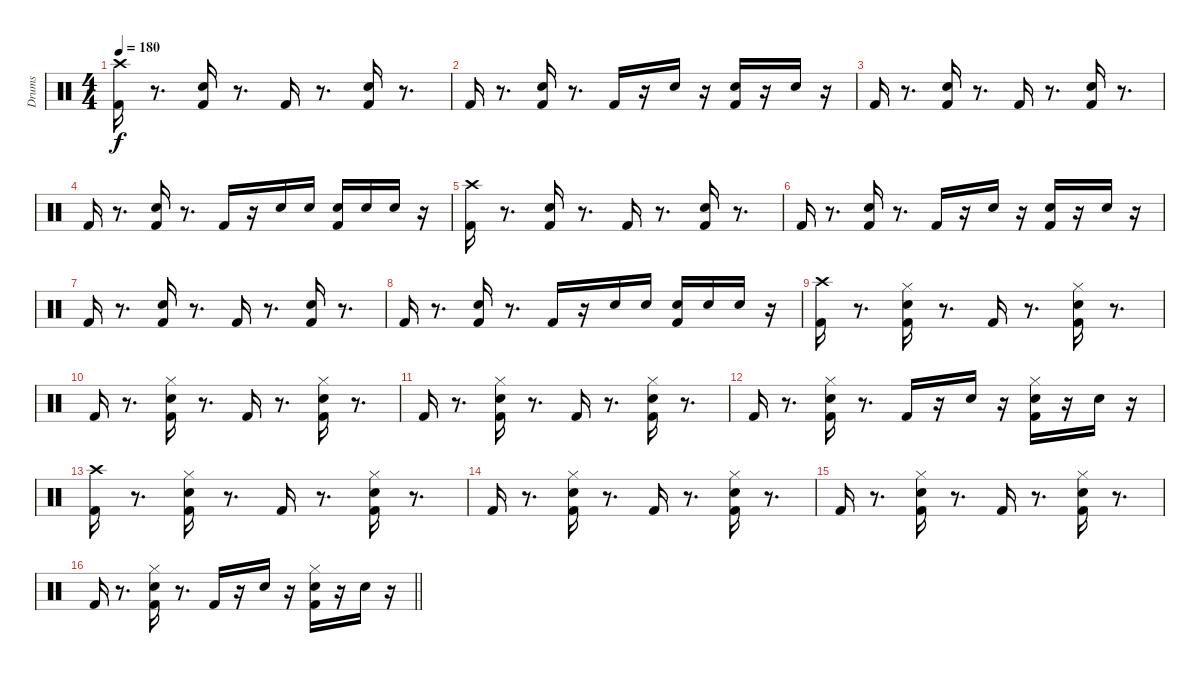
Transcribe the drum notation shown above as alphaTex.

\track ("Drums" "Drums") {instrument percussion}
\staff {score}
\articulation defaults
\ts (4 4)
\tempo 180
\clef neutral
\ks c
("Kick (hit) 2" "Crash high (hit)").16{dy f} r.8{d} ("Kick (hit) 2" "Snare (hit) 2").16 r.8{d} "Kick (hit) 2".16 r.8{d} ("Kick (hit) 2" "Snare (hit) 2").16 r.8{d} |
"Kick (hit) 2".16 r.8{d} ("Kick (hit) 2" "Snare (hit) 2").16 r.8{d} "Kick (hit) 2".16 r.16 "Snare (hit) 2".16 r.16 ("Kick (hit) 2" "Snare (hit) 2").16 r.16 "Snare (hit) 2".16 r.16 |
"Kick (hit) 2".16 r.8{d} ("Kick (hit) 2" "Snare (hit) 2").16 r.8{d} "Kick (hit) 2".16 r.8{d} ("Kick (hit) 2" "Snare (hit) 2").16 r.8{d} |
"Kick (hit) 2".16 r.8{d} ("Kick (hit) 2" "Snare (hit) 2").16 r.8{d} "Kick (hit) 2".16 r.16 "Snare (hit) 2".16 "Snare (hit) 2".16 ("Kick (hit) 2" "Snare (hit) 2").16 "Snare (hit) 2".16 "Snare (hit) 2".16 r.16 |
("Kick (hit) 2" "Crash high (hit)").16 r.8{d} ("Kick (hit) 2" "Snare (hit) 2").16 r.8{d} "Kick (hit) 2".16 r.8{d} ("Kick (hit) 2" "Snare (hit) 2").16 r.8{d} |
"Kick (hit) 2".16 r.8{d} ("Kick (hit) 2" "Snare (hit) 2").16 r.8{d} "Kick (hit) 2".16 r.16 "Snare (hit) 2".16 r.16 ("Kick (hit) 2" "Snare (hit) 2").16 r.16 "Snare (hit) 2".16 r.16 |
"Kick (hit) 2".16 r.8{d} ("Kick (hit) 2" "Snare (hit) 2").16 r.8{d} "Kick (hit) 2".16 r.8{d} ("Kick (hit) 2" "Snare (hit) 2").16 r.8{d} |
"Kick (hit) 2".16 r.8{d} ("Kick (hit) 2" "Snare (hit) 2").16 r.8{d} "Kick (hit) 2".16 r.16 "Snare (hit) 2".16 "Snare (hit) 2".16 ("Kick (hit) 2" "Snare (hit) 2").16 "Snare (hit) 2".16 "Snare (hit) 2".16 r.16 |
("Kick (hit) 2" "Crash high (hit)").16 r.8{d} ("Kick (hit) 2" "Snare (hit) 2" "Hi-Hat (closed)").16 r.8{d} "Kick (hit) 2".16 r.8{d} ("Kick (hit) 2" "Snare (hit) 2" "Hi-Hat (closed)").16 r.8{d} |
"Kick (hit) 2".16 r.8{d} ("Kick (hit) 2" "Snare (hit) 2" "Hi-Hat (closed)").16 r.8{d} "Kick (hit) 2".16 r.8{d} ("Kick (hit) 2" "Snare (hit) 2" "Hi-Hat (closed)").16 r.8{d} |
"Kick (hit) 2".16 r.8{d} ("Kick (hit) 2" "Snare (hit) 2" "Hi-Hat (closed)").16 r.8{d} "Kick (hit) 2".16 r.8{d} ("Kick (hit) 2" "Snare (hit) 2" "Hi-Hat (closed)").16 r.8{d} |
"Kick (hit) 2".16 r.8{d} ("Kick (hit) 2" "Snare (hit) 2" "Hi-Hat (closed)").16 r.8{d} "Kick (hit) 2".16 r.16 "Snare (hit) 2".16 r.16 ("Kick (hit) 2" "Snare (hit) 2" "Hi-Hat (closed)").16 r.16 "Snare (hit) 2".16 r.16 |
("Kick (hit) 2" "Crash high (hit)").16 r.8{d} ("Kick (hit) 2" "Snare (hit) 2" "Hi-Hat (closed)").16 r.8{d} "Kick (hit) 2".16 r.8{d} ("Kick (hit) 2" "Snare (hit) 2" "Hi-Hat (closed)").16 r.8{d} |
"Kick (hit) 2".16 r.8{d} ("Kick (hit) 2" "Snare (hit) 2" "Hi-Hat (closed)").16 r.8{d} "Kick (hit) 2".16 r.8{d} ("Kick (hit) 2" "Snare (hit) 2" "Hi-Hat (closed)").16 r.8{d} |
"Kick (hit) 2".16 r.8{d} ("Kick (hit) 2" "Snare (hit) 2" "Hi-Hat (closed)").16 r.8{d} "Kick (hit) 2".16 r.8{d} ("Kick (hit) 2" "Snare (hit) 2" "Hi-Hat (closed)").16 r.8{d} |
\barLineRight lightlight "Kick (hit) 2".16
r.8{d} ("Kick (hit) 2" "Snare (hit) 2" "Hi-Hat (closed)").16 r.8{d} "Kick (hit) 2".16 r.16 "Snare (hit) 2".16 r.16 ("Kick (hit) 2" "Snare (hit) 2" "Hi-Hat (closed)").16 r.16 "Snare (hit) 2".16 r.16
